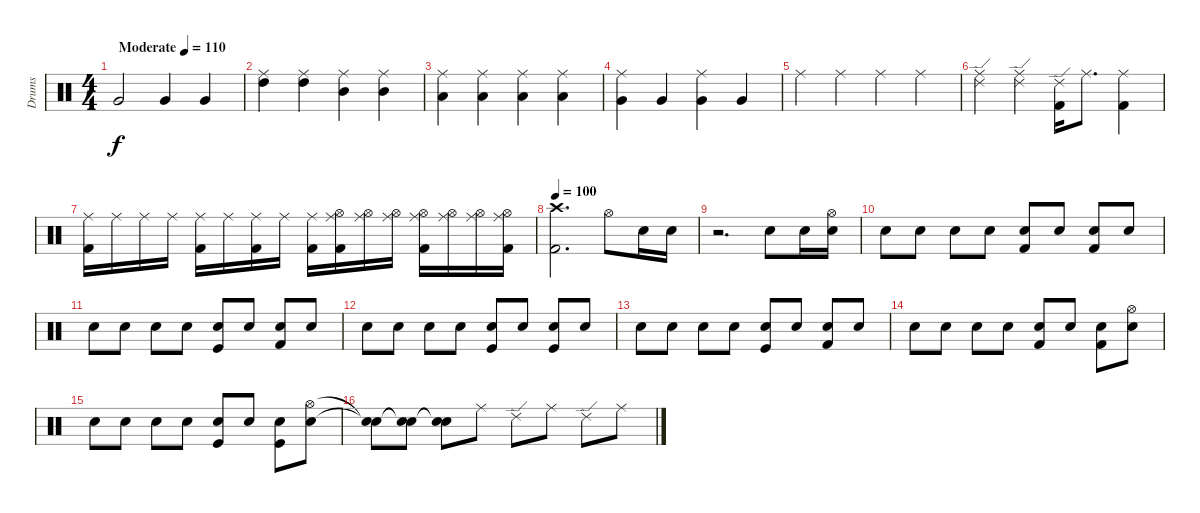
\track ("Drums" "Drums") {instrument percussion}
\staff {score}
\articulation defaults
\ts (4 4)
\tempo (110 "Moderate")
\clef neutral
\ks c "Very Low Tom (hit)".2{dy f} "Very Low Tom (hit)".4 "Very Low Tom (hit)".4
|
("Ride (middle)" "High Tom (hit)").4 ("Ride (middle)" "High Tom (hit)").4 ("Ride (middle)" "Mid Tom (hit)").4 ("Ride (middle)" "Mid Tom (hit)").4 |
("Ride (middle)" "Low Tom (hit)").4 ("Ride (middle)" "Low Tom (hit)").4 ("Ride (middle)" "Low Tom (hit)").4 ("Ride (middle)" "Low Tom (hit)").4 |
("Ride (middle)" "Very Low Tom (hit)").4 "Very Low Tom (hit)".4 ("Ride (middle)" "Very Low Tom (hit)").4 "Very Low Tom (hit)".4 |
"Ride (middle)".4 "Ride (middle)".4 "Ride (middle)".4 "Ride (middle)".4 |
("Ride (middle)" "Ride (edge) 2").4 ("Ride (middle)" "Ride (edge) 2").4 ("Ride (edge) 2" "Kick (hit) 2").16 "Ride (middle)".8{d} ("Ride (middle)" "Kick (hit) 2").4 |
("Ride (middle)" "Kick (hit) 2").16 "Ride (middle)".16 "Ride (middle)".16 "Ride (middle)".16 ("Ride (middle)" "Kick (hit) 2").16 "Ride (middle)".16 ("Ride (middle)" "Kick (hit) 2").16 "Ride (middle)".16 ("Ride (middle)" "Kick (hit) 2").16 ("Hi-Hat (open)" "Ride (middle)" "Kick (hit) 2").16 ("Hi-Hat (open)" "Ride (middle)").16 ("Hi-Hat (open)" "Ride (middle)").16 ("Hi-Hat (open)" "Ride (middle)" "Kick (hit) 2").16 ("Hi-Hat (open)" "Ride (middle)").16 ("Hi-Hat (open)" "Ride (middle)").16 ("Hi-Hat (open)" "Ride (middle)" "Kick (hit) 2").16 |
\tempo 100
("Crash high (hit)" "Kick (hit) 2").2{d} "Hi-Hat (open)".8 "Electric Snare (hit)".16 "Electric Snare (hit)".16 |
r.2{d} "Snare (hit) 2".8 "Electric Snare (hit)".16 ("Electric Snare (hit)" "Hi-Hat (open)").16 |
"Electric Snare (hit)".8 "Electric Snare (hit)".8 "Electric Snare (hit)".8 "Electric Snare (hit)".8 ("Electric Snare (hit)" "Kick (hit) 2").8 "Electric Snare (hit)".8 ("Electric Snare (hit)" "Kick (hit) 2").8 "Electric Snare (hit)".8 |
"Snare (hit) 2".8 "Snare (hit) 2".8 "Electric Snare (hit)".8 "Electric Snare (hit)".8 ("Snare (hit) 2" "Kick (hit)").8 "Snare (hit) 2".8 ("Electric Snare (hit)" "Kick (hit) 2").8 "Electric Snare (hit)".8 |
"Snare (hit) 2".8 "Snare (hit) 2".8 "Snare (hit) 2".8 "Snare (hit) 2".8 ("Snare (hit) 2" "Kick (hit)").8 "Snare (hit) 2".8 ("Snare (hit) 2" "Kick (hit)").8 "Snare (hit) 2".8 |
"Snare (hit) 2".8 "Snare (hit) 2".8 "Electric Snare (hit)".8 "Electric Snare (hit)".8 ("Snare (hit) 2" "Kick (hit)").8 "Snare (hit) 2".8 ("Electric Snare (hit)" "Kick (hit) 2").8 "Electric Snare (hit)".8 |
"Electric Snare (hit)".8 "Electric Snare (hit)".8 "Electric Snare (hit)".8 "Electric Snare (hit)".8 ("Electric Snare (hit)" "Kick (hit) 2").8 "Electric Snare (hit)".8 ("Electric Snare (hit)" "Kick (hit) 2").8 ("Snare (hit) 2" "Hi-Hat (open)").8 |
"Snare (hit) 2".8 "Snare (hit) 2".8 "Snare (hit) 2".8 "Snare (hit) 2".8 ("Snare (hit) 2" "Kick (hit)").8 "Snare (hit) 2".8 ("Snare (hit) 2" "Kick (hit)").8 ("Electric Snare (hit)" "Hi-Hat (open)").8 |
("Snare (hit)"{t} "Snare (hit)"{t}).8{volume 4} ("Snare (hit)"{t} "Snare (hit)"{t}).8 ("Snare (hit)"{t} "Snare (hit)"{t}).8 "Ride (middle)".8 "Ride (edge) 2".8 "Ride (middle)".8 "Ride (edge) 2".8 "Ride (middle)".8
